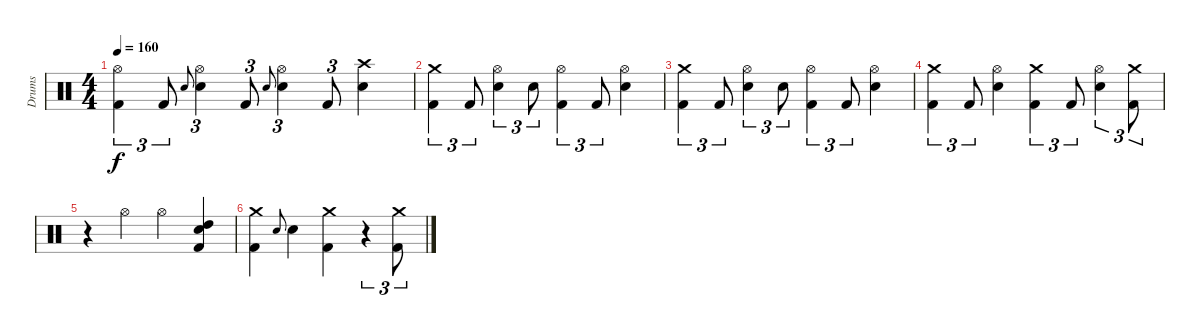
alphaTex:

\track ("Drums" "Drums") {instrument percussion}
\staff {score}
\articulation defaults
\ts (4 4)
\tempo 160
\clef neutral
\ks c
("Hi-Hat (open)" "Kick (hit) 2").4{tu (3 2) dy f} "Kick (hit) 2".8{tu (3 2)} "Snare (hit) 2".8{gr onbeat} ("Hi-Hat (open)" "Snare (hit) 2").4{tu (3 2)} "Kick (hit) 2".8{tu (3 2)} "Snare (hit) 2".8{gr onbeat} ("Hi-Hat (open)" "Snare (hit) 2").4{tu (3 2)} "Kick (hit) 2".8{tu (3 2)} ("Crash high (hit)" "Snare (hit) 2").4 |
("Crash medium (hit)" "Kick (hit) 2").4{tu (3 2)} "Kick (hit) 2".8{tu (3 2)} ("Hi-Hat (open)" "Snare (hit) 2").4{tu (3 2)} "Snare (hit) 2".8{tu (3 2)} ("Hi-Hat (open)" "Kick (hit) 2").4{tu (3 2)} "Kick (hit) 2".8{tu (3 2)} ("Hi-Hat (open)" "Snare (hit) 2").4 |
("Crash medium (hit)" "Kick (hit) 2").4{tu (3 2)} "Kick (hit) 2".8{tu (3 2)} ("Hi-Hat (open)" "Snare (hit) 2").4{tu (3 2)} "Snare (hit) 2".8{tu (3 2)} ("Hi-Hat (open)" "Kick (hit) 2").4{tu (3 2)} "Kick (hit) 2".8{tu (3 2)} ("Hi-Hat (open)" "Snare (hit) 2").4 |
("Crash medium (hit)" "Kick (hit) 2").4{tu (3 2)} "Kick (hit) 2".8{tu (3 2)} ("Hi-Hat (open)" "Snare (hit) 2").4 ("Crash medium (hit)" "Kick (hit) 2").4{tu (3 2)} "Kick (hit) 2".8{tu (3 2)} ("Hi-Hat (open)" "Snare (hit) 2").4{tu (3 2)} ("Crash medium (hit)" "Kick (hit) 2").8{tu (3 2)} |
r.4 "Hi-Hat (open)".4 "Hi-Hat (open)".4 ("High Tom (hit)" "Snare (hit) 2" "Kick (hit) 2").4 |
("Crash medium (hit)" "Kick (hit) 2").4 "Snare (hit) 2".8{gr onbeat} "Snare (hit) 2".4 ("Crash medium (hit)" "Kick (hit) 2").4 r.4{tu (3 2)} ("Crash medium (hit)" "Kick (hit) 2").8{tu (3 2)}
